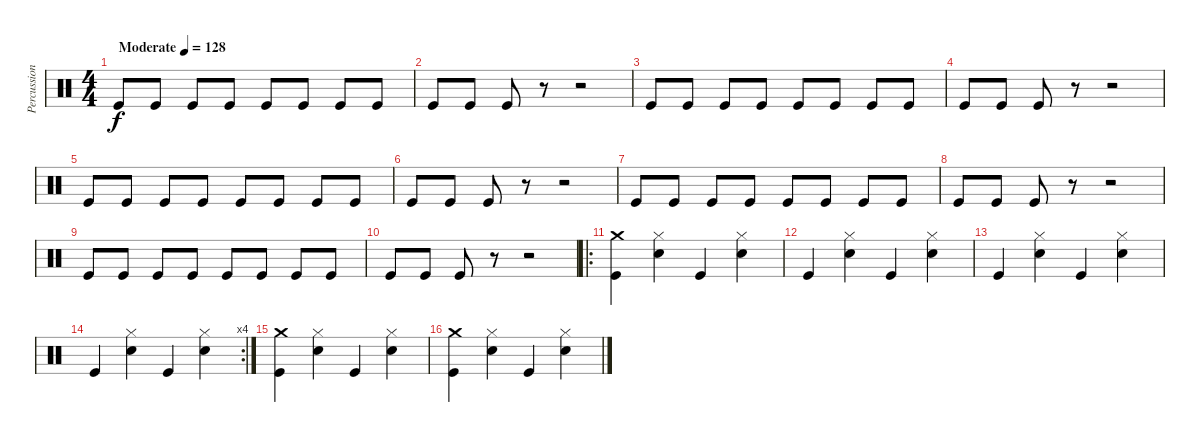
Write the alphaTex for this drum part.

\track ("Percussion" "Percussion") {instrument percussion}
\staff {score}
\articulation defaults
\ts (4 4)
\tempo (128 "Moderate")
\clef neutral
\ks c "Kick (hit)".8{dy f} "Kick (hit)".8 "Kick (hit)".8 "Kick (hit)".8 "Kick (hit)".8 "Kick (hit)".8 "Kick (hit)".8 "Kick (hit)".8
|
"Kick (hit)".8 "Kick (hit)".8 "Kick (hit)".8 r.8 r.2 |
"Kick (hit)".8 "Kick (hit)".8 "Kick (hit)".8 "Kick (hit)".8 "Kick (hit)".8 "Kick (hit)".8 "Kick (hit)".8 "Kick (hit)".8 |
"Kick (hit)".8 "Kick (hit)".8 "Kick (hit)".8 r.8 r.2 |
"Kick (hit)".8 "Kick (hit)".8 "Kick (hit)".8 "Kick (hit)".8 "Kick (hit)".8 "Kick (hit)".8 "Kick (hit)".8 "Kick (hit)".8 |
"Kick (hit)".8 "Kick (hit)".8 "Kick (hit)".8 r.8 r.2 |
"Kick (hit)".8 "Kick (hit)".8 "Kick (hit)".8 "Kick (hit)".8 "Kick (hit)".8 "Kick (hit)".8 "Kick (hit)".8 "Kick (hit)".8 |
"Kick (hit)".8 "Kick (hit)".8 "Kick (hit)".8 r.8 r.2 |
"Kick (hit)".8 "Kick (hit)".8 "Kick (hit)".8 "Kick (hit)".8 "Kick (hit)".8 "Kick (hit)".8 "Kick (hit)".8 "Kick (hit)".8 |
"Kick (hit)".8 "Kick (hit)".8 "Kick (hit)".8 r.8 r.2 |
\ro
("Crash medium (hit)" "Kick (hit)").4 ("Snare (hit) 2" "Hi-Hat (closed)").4 "Kick (hit)".4 ("Snare (hit) 2" "Hi-Hat (closed)").4 |
"Kick (hit)".4 ("Snare (hit) 2" "Hi-Hat (closed)").4 "Kick (hit)".4 ("Snare (hit) 2" "Hi-Hat (closed)").4 |
"Kick (hit)".4 ("Snare (hit) 2" "Hi-Hat (closed)").4 "Kick (hit)".4 ("Snare (hit) 2" "Hi-Hat (closed)").4 |
\rc 4 "Kick (hit)".4
("Snare (hit) 2" "Hi-Hat (closed)").4 "Kick (hit)".4 ("Snare (hit) 2" "Hi-Hat (closed)").4 |
("Crash medium (hit)" "Kick (hit)").4 ("Snare (hit) 2" "Hi-Hat (closed)").4 "Kick (hit)".4 ("Snare (hit) 2" "Hi-Hat (closed)").4 |
("Crash medium (hit)" "Kick (hit)").4 ("Snare (hit) 2" "Hi-Hat (closed)").4 "Kick (hit)".4 ("Snare (hit) 2" "Hi-Hat (closed)").4
